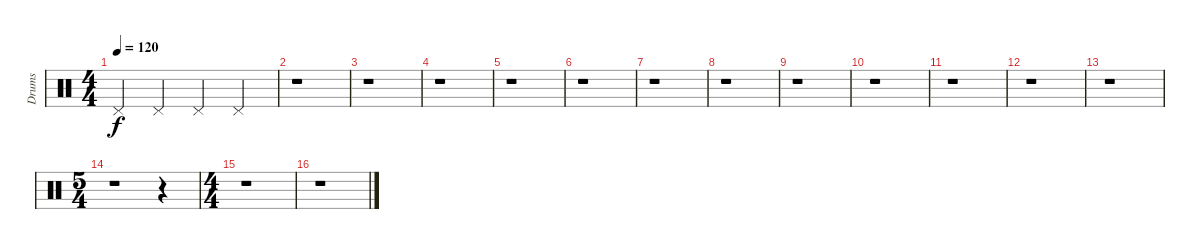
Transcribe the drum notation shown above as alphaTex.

\track ("Drums" "Drums") {instrument percussion}
\staff {score}
\articulation defaults
\ts (4 4)
\tempo 120
\clef neutral
\ks c "Pedal Hi-Hat (hit)".4{dy f} "Pedal Hi-Hat (hit)".4 "Pedal Hi-Hat (hit)".4 "Pedal Hi-Hat (hit)".4
|
r.1 |
r.1 |
r.1 |
r.1 |
r.1 |
r.1 |
r.1 |
r.1 |
r.1 |
r.1 |
r.1 |
r.1 |
\ts (5 4)
r.1 r.4 |
\ts (4 4)
r.1 |
r.1
